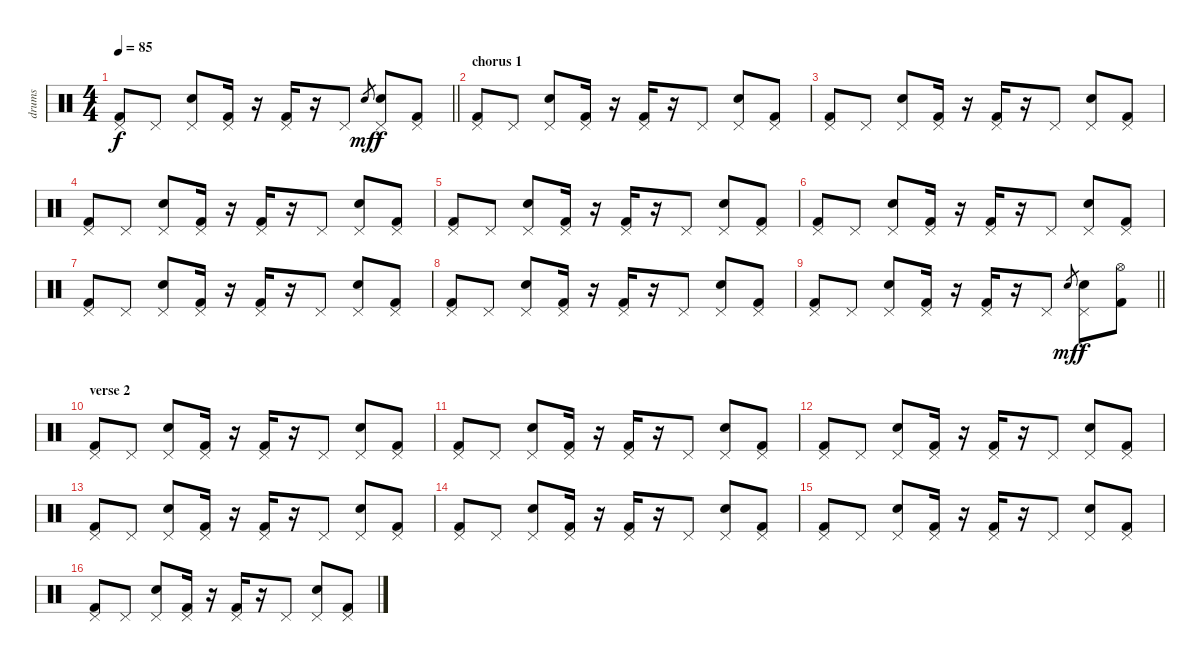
\track ("drums" "drums") {instrument percussion}
\staff {score}
\articulation defaults
\ts (4 4)
\tempo 85
\clef neutral
\barLineRight lightlight
\ks c
("Kick (hit) 2" "Pedal Hi-Hat (hit)").8{dy f} "Pedal Hi-Hat (hit)".8 ("Electric Snare (hit)" "Pedal Hi-Hat (hit)").8 ("Kick (hit) 2" "Pedal Hi-Hat (hit)").16 r.16 ("Kick (hit) 2" "Pedal Hi-Hat (hit)").16 r.16 "Pedal Hi-Hat (hit)".8 "Electric Snare (hit)".8{gr dy mf} ("Electric Snare (hit)" "Pedal Hi-Hat (hit)").8{dy f} ("Kick (hit) 2" "Pedal Hi-Hat (hit)").8 |
\section ("" "chorus 1")
("Kick (hit) 2" "Pedal Hi-Hat (hit)").8 "Pedal Hi-Hat (hit)".8 ("Electric Snare (hit)" "Pedal Hi-Hat (hit)").8 ("Kick (hit) 2" "Pedal Hi-Hat (hit)").16 r.16 ("Kick (hit) 2" "Pedal Hi-Hat (hit)").16 r.16 "Pedal Hi-Hat (hit)".8 ("Electric Snare (hit)" "Pedal Hi-Hat (hit)").8 ("Kick (hit) 2" "Pedal Hi-Hat (hit)").8 |
("Kick (hit) 2" "Pedal Hi-Hat (hit)").8 "Pedal Hi-Hat (hit)".8 ("Electric Snare (hit)" "Pedal Hi-Hat (hit)").8 ("Kick (hit) 2" "Pedal Hi-Hat (hit)").16 r.16 ("Kick (hit) 2" "Pedal Hi-Hat (hit)").16 r.16 "Pedal Hi-Hat (hit)".8 ("Electric Snare (hit)" "Pedal Hi-Hat (hit)").8 ("Kick (hit) 2" "Pedal Hi-Hat (hit)").8 |
("Kick (hit) 2" "Pedal Hi-Hat (hit)").8 "Pedal Hi-Hat (hit)".8 ("Electric Snare (hit)" "Pedal Hi-Hat (hit)").8 ("Kick (hit) 2" "Pedal Hi-Hat (hit)").16 r.16 ("Kick (hit) 2" "Pedal Hi-Hat (hit)").16 r.16 "Pedal Hi-Hat (hit)".8 ("Electric Snare (hit)" "Pedal Hi-Hat (hit)").8 ("Kick (hit) 2" "Pedal Hi-Hat (hit)").8 |
("Kick (hit) 2" "Pedal Hi-Hat (hit)").8 "Pedal Hi-Hat (hit)".8 ("Electric Snare (hit)" "Pedal Hi-Hat (hit)").8 ("Kick (hit) 2" "Pedal Hi-Hat (hit)").16 r.16 ("Kick (hit) 2" "Pedal Hi-Hat (hit)").16 r.16 "Pedal Hi-Hat (hit)".8 ("Electric Snare (hit)" "Pedal Hi-Hat (hit)").8 ("Kick (hit) 2" "Pedal Hi-Hat (hit)").8 |
("Kick (hit) 2" "Pedal Hi-Hat (hit)").8 "Pedal Hi-Hat (hit)".8 ("Electric Snare (hit)" "Pedal Hi-Hat (hit)").8 ("Kick (hit) 2" "Pedal Hi-Hat (hit)").16 r.16 ("Kick (hit) 2" "Pedal Hi-Hat (hit)").16 r.16 "Pedal Hi-Hat (hit)".8 ("Electric Snare (hit)" "Pedal Hi-Hat (hit)").8 ("Kick (hit) 2" "Pedal Hi-Hat (hit)").8 |
("Kick (hit) 2" "Pedal Hi-Hat (hit)").8 "Pedal Hi-Hat (hit)".8 ("Electric Snare (hit)" "Pedal Hi-Hat (hit)").8 ("Kick (hit) 2" "Pedal Hi-Hat (hit)").16 r.16 ("Kick (hit) 2" "Pedal Hi-Hat (hit)").16 r.16 "Pedal Hi-Hat (hit)".8 ("Electric Snare (hit)" "Pedal Hi-Hat (hit)").8 ("Kick (hit) 2" "Pedal Hi-Hat (hit)").8 |
("Kick (hit) 2" "Pedal Hi-Hat (hit)").8 "Pedal Hi-Hat (hit)".8 ("Electric Snare (hit)" "Pedal Hi-Hat (hit)").8 ("Kick (hit) 2" "Pedal Hi-Hat (hit)").16 r.16 ("Kick (hit) 2" "Pedal Hi-Hat (hit)").16 r.16 "Pedal Hi-Hat (hit)".8 ("Electric Snare (hit)" "Pedal Hi-Hat (hit)").8 ("Kick (hit) 2" "Pedal Hi-Hat (hit)").8 |
\barLineRight lightlight
("Kick (hit) 2" "Pedal Hi-Hat (hit)").8 "Pedal Hi-Hat (hit)".8 ("Electric Snare (hit)" "Pedal Hi-Hat (hit)").8 ("Kick (hit) 2" "Pedal Hi-Hat (hit)").16 r.16 ("Kick (hit) 2" "Pedal Hi-Hat (hit)").16 r.16 "Pedal Hi-Hat (hit)".8 "Electric Snare (hit)".8{gr dy mf} ("Electric Snare (hit)" "Pedal Hi-Hat (hit)").8{dy f} ("Kick (hit) 2" "Hi-Hat (open)").8 |
\section ("" "verse 2")
("Kick (hit) 2" "Pedal Hi-Hat (hit)").8 "Pedal Hi-Hat (hit)".8 ("Electric Snare (hit)" "Pedal Hi-Hat (hit)").8 ("Kick (hit) 2" "Pedal Hi-Hat (hit)").16 r.16 ("Kick (hit) 2" "Pedal Hi-Hat (hit)").16 r.16 "Pedal Hi-Hat (hit)".8 ("Electric Snare (hit)" "Pedal Hi-Hat (hit)").8 ("Kick (hit) 2" "Pedal Hi-Hat (hit)").8 |
("Kick (hit) 2" "Pedal Hi-Hat (hit)").8 "Pedal Hi-Hat (hit)".8 ("Electric Snare (hit)" "Pedal Hi-Hat (hit)").8 ("Kick (hit) 2" "Pedal Hi-Hat (hit)").16 r.16 ("Kick (hit) 2" "Pedal Hi-Hat (hit)").16 r.16 "Pedal Hi-Hat (hit)".8 ("Electric Snare (hit)" "Pedal Hi-Hat (hit)").8 ("Kick (hit) 2" "Pedal Hi-Hat (hit)").8 |
("Kick (hit) 2" "Pedal Hi-Hat (hit)").8 "Pedal Hi-Hat (hit)".8 ("Electric Snare (hit)" "Pedal Hi-Hat (hit)").8 ("Kick (hit) 2" "Pedal Hi-Hat (hit)").16 r.16 ("Kick (hit) 2" "Pedal Hi-Hat (hit)").16 r.16 "Pedal Hi-Hat (hit)".8 ("Electric Snare (hit)" "Pedal Hi-Hat (hit)").8 ("Kick (hit) 2" "Pedal Hi-Hat (hit)").8 |
("Kick (hit) 2" "Pedal Hi-Hat (hit)").8 "Pedal Hi-Hat (hit)".8 ("Electric Snare (hit)" "Pedal Hi-Hat (hit)").8 ("Kick (hit) 2" "Pedal Hi-Hat (hit)").16 r.16 ("Kick (hit) 2" "Pedal Hi-Hat (hit)").16 r.16 "Pedal Hi-Hat (hit)".8 ("Electric Snare (hit)" "Pedal Hi-Hat (hit)").8 ("Kick (hit) 2" "Pedal Hi-Hat (hit)").8 |
("Kick (hit) 2" "Pedal Hi-Hat (hit)").8 "Pedal Hi-Hat (hit)".8 ("Electric Snare (hit)" "Pedal Hi-Hat (hit)").8 ("Kick (hit) 2" "Pedal Hi-Hat (hit)").16 r.16 ("Kick (hit) 2" "Pedal Hi-Hat (hit)").16 r.16 "Pedal Hi-Hat (hit)".8 ("Electric Snare (hit)" "Pedal Hi-Hat (hit)").8 ("Kick (hit) 2" "Pedal Hi-Hat (hit)").8 |
("Kick (hit) 2" "Pedal Hi-Hat (hit)").8 "Pedal Hi-Hat (hit)".8 ("Electric Snare (hit)" "Pedal Hi-Hat (hit)").8 ("Kick (hit) 2" "Pedal Hi-Hat (hit)").16 r.16 ("Kick (hit) 2" "Pedal Hi-Hat (hit)").16 r.16 "Pedal Hi-Hat (hit)".8 ("Electric Snare (hit)" "Pedal Hi-Hat (hit)").8 ("Kick (hit) 2" "Pedal Hi-Hat (hit)").8 |
("Kick (hit) 2" "Pedal Hi-Hat (hit)").8 "Pedal Hi-Hat (hit)".8 ("Electric Snare (hit)" "Pedal Hi-Hat (hit)").8 ("Kick (hit) 2" "Pedal Hi-Hat (hit)").16 r.16 ("Kick (hit) 2" "Pedal Hi-Hat (hit)").16 r.16 "Pedal Hi-Hat (hit)".8 ("Electric Snare (hit)" "Pedal Hi-Hat (hit)").8 ("Kick (hit) 2" "Pedal Hi-Hat (hit)").8
